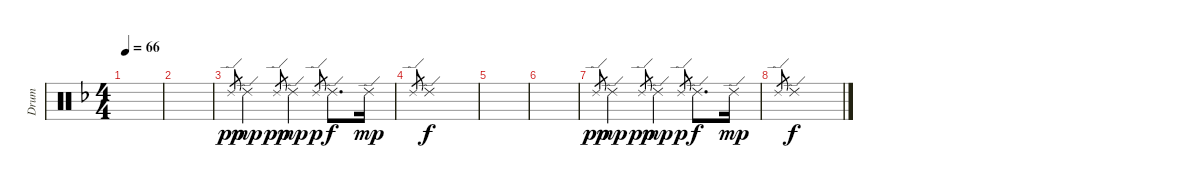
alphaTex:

\track ("Drum" "Drum") {instrument percussion}
\staff {score}
\articulation defaults
\ts (4 4)
\tempo 66
\clef neutral
\ks dminor
|
|
"Ride (edge) 2".8{gr dy pp} "Ride (edge) 2".2{dy mp} "Ride (edge) 2".8{gr dy pp} "Ride (edge) 2".4{dy mp} "Ride (edge) 2".8{gr dy p} "Ride (edge) 2".8{d dy f} "Ride (edge) 2".16{dy mp} |
"Ride (edge) 2".8{gr} "Ride (edge) 2".1{dy f} |
|
|
"Ride (edge) 2".8{gr dy pp} "Ride (edge) 2".2{dy mp volume 0} "Ride (edge) 2".8{gr dy pp} "Ride (edge) 2".4{dy mp} "Ride (edge) 2".8{gr dy p} "Ride (edge) 2".8{d dy f} "Ride (edge) 2".16{dy mp} |
"Ride (edge) 2".8{gr} "Ride (edge) 2".1{dy f}
